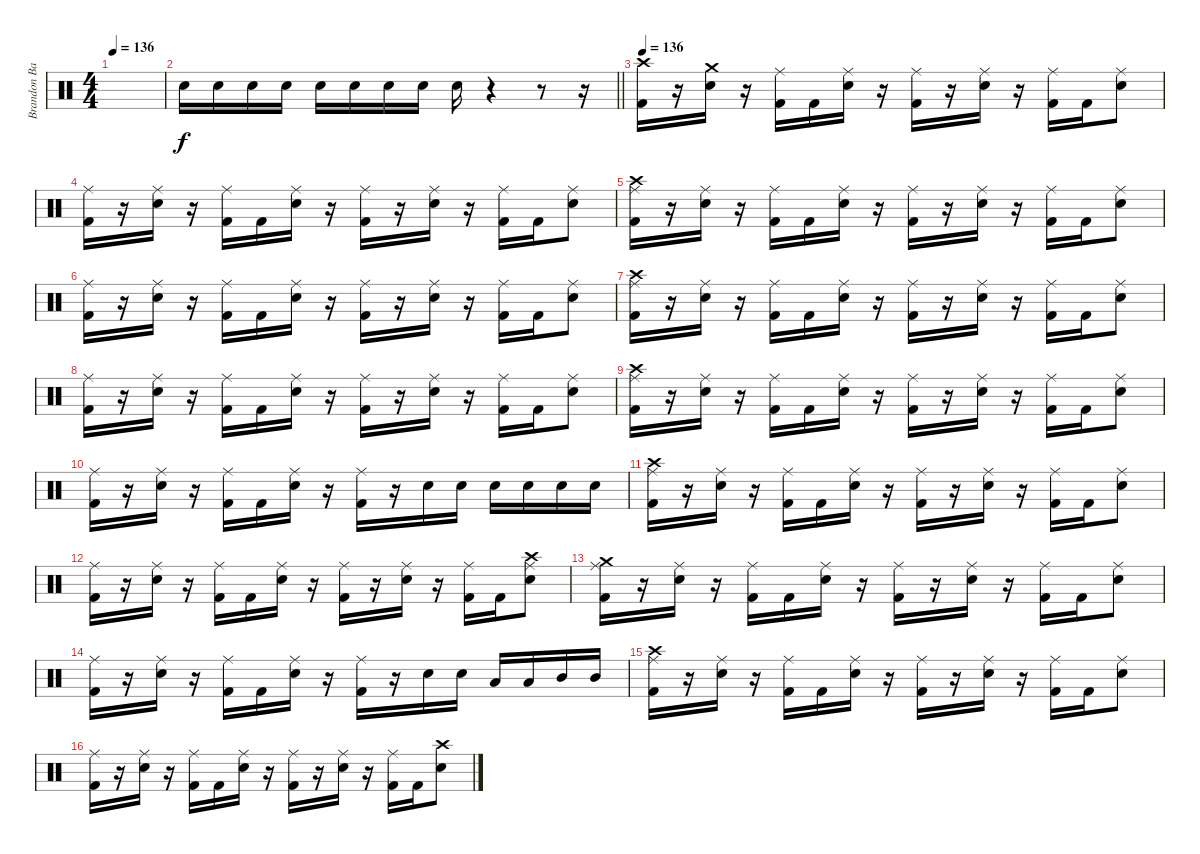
\track ("Brandon Barnes (Drums)" "Brandon Ba") {instrument percussion}
\staff {score}
\articulation defaults
\ts (4 4)
\tempo 136
\clef neutral
\ks c
|
\barLineRight lightlight "Snare (hit) 2".16 "Snare (hit) 2".16 "Snare (hit) 2".16 "Snare (hit) 2".16 "Snare (hit) 2".16 "Snare (hit) 2".16 "Snare (hit) 2".16 "Snare (hit) 2".16 "Snare (hit) 2".16
r.4 r.8 r.16 |
\tempo 136
("Kick (hit) 2" "Crash high (hit)").16 r.16 ("Snare (hit) 2" "Crash medium (hit)").16 r.16 ("Ride (middle)" "Kick (hit) 2").16 "Kick (hit) 2".16 ("Ride (middle)" "Snare (hit) 2").16 r.16 ("Ride (middle)" "Kick (hit) 2").16 r.16 ("Ride (middle)" "Snare (hit) 2").16 r.16 ("Ride (middle)" "Kick (hit) 2").16 "Kick (hit) 2".16 ("Ride (middle)" "Snare (hit) 2").8 |
("Ride (middle)" "Kick (hit) 2").16 r.16 ("Ride (middle)" "Snare (hit) 2").16 r.16 ("Ride (middle)" "Kick (hit) 2").16 "Kick (hit) 2".16 ("Ride (middle)" "Snare (hit) 2").16 r.16 ("Ride (middle)" "Kick (hit) 2").16 r.16 ("Ride (middle)" "Snare (hit) 2").16 r.16 ("Ride (middle)" "Kick (hit) 2").16 "Kick (hit) 2".16 ("Ride (middle)" "Snare (hit) 2").8 |
("Ride (middle)" "Kick (hit) 2" "Crash high (hit)").16 r.16 ("Ride (middle)" "Snare (hit) 2").16 r.16 ("Ride (middle)" "Kick (hit) 2").16 "Kick (hit) 2".16 ("Ride (middle)" "Snare (hit) 2").16 r.16 ("Ride (middle)" "Kick (hit) 2").16 r.16 ("Ride (middle)" "Snare (hit) 2").16 r.16 ("Ride (middle)" "Kick (hit) 2").16 "Kick (hit) 2".16 ("Ride (middle)" "Snare (hit) 2").8 |
("Ride (middle)" "Kick (hit) 2").16 r.16 ("Ride (middle)" "Snare (hit) 2").16 r.16 ("Ride (middle)" "Kick (hit) 2").16 "Kick (hit) 2".16 ("Ride (middle)" "Snare (hit) 2").16 r.16 ("Ride (middle)" "Kick (hit) 2").16 r.16 ("Ride (middle)" "Snare (hit) 2").16 r.16 ("Ride (middle)" "Kick (hit) 2").16 "Kick (hit) 2".16 ("Ride (middle)" "Snare (hit) 2").8 |
("Ride (middle)" "Kick (hit) 2" "Crash high (hit)").16 r.16 ("Ride (middle)" "Snare (hit) 2").16 r.16 ("Ride (middle)" "Kick (hit) 2").16 "Kick (hit) 2".16 ("Ride (middle)" "Snare (hit) 2").16 r.16 ("Ride (middle)" "Kick (hit) 2").16 r.16 ("Ride (middle)" "Snare (hit) 2").16 r.16 ("Ride (middle)" "Kick (hit) 2").16 "Kick (hit) 2".16 ("Ride (middle)" "Snare (hit) 2").8 |
("Ride (middle)" "Kick (hit) 2").16 r.16 ("Ride (middle)" "Snare (hit) 2").16 r.16 ("Ride (middle)" "Kick (hit) 2").16 "Kick (hit) 2".16 ("Ride (middle)" "Snare (hit) 2").16 r.16 ("Ride (middle)" "Kick (hit) 2").16 r.16 ("Ride (middle)" "Snare (hit) 2").16 r.16 ("Ride (middle)" "Kick (hit) 2").16 "Kick (hit) 2".16 ("Ride (middle)" "Snare (hit) 2").8 |
("Ride (middle)" "Kick (hit) 2" "Crash high (hit)").16 r.16 ("Ride (middle)" "Snare (hit) 2").16 r.16 ("Ride (middle)" "Kick (hit) 2").16 "Kick (hit) 2".16 ("Ride (middle)" "Snare (hit) 2").16 r.16 ("Ride (middle)" "Kick (hit) 2").16 r.16 ("Ride (middle)" "Snare (hit) 2").16 r.16 ("Ride (middle)" "Kick (hit) 2").16 "Kick (hit) 2".16 ("Ride (middle)" "Snare (hit) 2").8 |
("Ride (middle)" "Kick (hit) 2").16 r.16 ("Ride (middle)" "Snare (hit) 2").16 r.16 ("Ride (middle)" "Kick (hit) 2").16 "Kick (hit) 2".16 ("Ride (middle)" "Snare (hit) 2").16 r.16 ("Ride (middle)" "Kick (hit) 2").16 r.16 "Snare (hit) 2".16 "Snare (hit) 2".16 "Snare (hit) 2".16 "Snare (hit) 2".16 "Snare (hit) 2".16 "Snare (hit) 2".16 |
("Ride (middle)" "Kick (hit) 2" "Crash high (hit)").16 r.16 ("Ride (middle)" "Snare (hit) 2").16 r.16 ("Ride (middle)" "Kick (hit) 2").16 "Kick (hit) 2".16 ("Ride (middle)" "Snare (hit) 2").16 r.16 ("Ride (middle)" "Kick (hit) 2").16 r.16 ("Ride (middle)" "Snare (hit) 2").16 r.16 ("Ride (middle)" "Kick (hit) 2").16 "Kick (hit) 2".16 ("Ride (middle)" "Snare (hit) 2").8 |
("Ride (middle)" "Kick (hit) 2").16 r.16 ("Ride (middle)" "Snare (hit) 2").16 r.16 ("Ride (middle)" "Kick (hit) 2").16 "Kick (hit) 2".16 ("Ride (middle)" "Snare (hit) 2").16 r.16 ("Ride (middle)" "Kick (hit) 2").16 r.16 ("Ride (middle)" "Snare (hit) 2").16 r.16 ("Ride (middle)" "Kick (hit) 2").16 "Kick (hit) 2".16 ("Ride (middle)" "Snare (hit) 2" "Crash high (hit)").8 |
("Ride (middle)" "Kick (hit) 2" "Crash medium (hit)").16 r.16 ("Ride (middle)" "Snare (hit) 2").16 r.16 ("Ride (middle)" "Kick (hit) 2").16 "Kick (hit) 2".16 ("Ride (middle)" "Snare (hit) 2").16 r.16 ("Ride (middle)" "Kick (hit) 2").16 r.16 ("Ride (middle)" "Snare (hit) 2").16 r.16 ("Ride (middle)" "Kick (hit) 2").16 "Kick (hit) 2".16 ("Ride (middle)" "Snare (hit) 2").8 |
("Ride (middle)" "Kick (hit) 2").16 r.16 ("Ride (middle)" "Snare (hit) 2").16 r.16 ("Ride (middle)" "Kick (hit) 2").16 "Kick (hit) 2".16 ("Ride (middle)" "Snare (hit) 2").16 r.16 ("Ride (middle)" "Kick (hit) 2").16 r.16 "Snare (hit) 2".16 "Snare (hit) 2".16 "Low Tom (hit)".16 "Low Tom (hit)".16 "Mid Tom (hit)".16 "Mid Tom (hit)".16 |
("Ride (middle)" "Kick (hit) 2" "Crash high (hit)").16 r.16 ("Ride (middle)" "Snare (hit) 2").16 r.16 ("Ride (middle)" "Kick (hit) 2").16 "Kick (hit) 2".16 ("Ride (middle)" "Snare (hit) 2").16 r.16 ("Ride (middle)" "Kick (hit) 2").16 r.16 ("Ride (middle)" "Snare (hit) 2").16 r.16 ("Ride (middle)" "Kick (hit) 2").16 "Kick (hit) 2".16 ("Ride (middle)" "Snare (hit) 2").8 |
("Ride (middle)" "Kick (hit) 2").16 r.16 ("Ride (middle)" "Snare (hit) 2").16 r.16 ("Ride (middle)" "Kick (hit) 2").16 "Kick (hit) 2".16 ("Ride (middle)" "Snare (hit) 2").16 r.16 ("Ride (middle)" "Kick (hit) 2").16 r.16 ("Ride (middle)" "Snare (hit) 2").16 r.16 ("Ride (middle)" "Kick (hit) 2").16 "Kick (hit) 2".16 ("Snare (hit) 2" "Crash high (hit)").8
